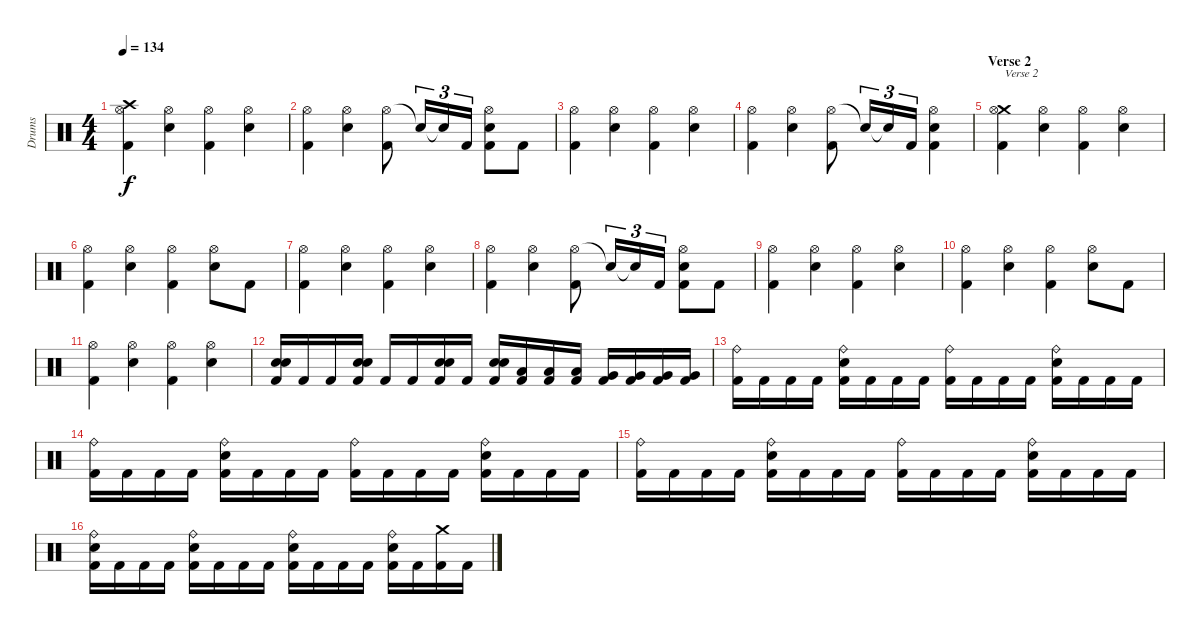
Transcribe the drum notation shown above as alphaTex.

\track ("Drums" "Drums") {instrument percussion}
\staff {score}
\articulation defaults
\ts (4 4)
\tempo 134
\clef neutral
\ks c
("Crash high (hit)" "Hi-Hat (open)" "Kick (hit) 2").4{dy f} ("Hi-Hat (open)" "Electric Snare (hit)").4 ("Hi-Hat (open)" "Kick (hit) 2").4 ("Hi-Hat (open)" "Electric Snare (hit)").4 |
("Hi-Hat (open)" "Kick (hit) 2").4 ("Hi-Hat (open)" "Electric Snare (hit)").4 ("Hi-Hat (open)" "Kick (hit) 2").8 "Snare (hit)"{t}.16{tu (3 2)} "Snare (hit)"{t}.16{tu (3 2)} "Kick (hit) 2".16{tu (3 2)} ("Hi-Hat (open)" "Electric Snare (hit)" "Kick (hit) 2").8 "Kick (hit) 2".8 |
("Hi-Hat (open)" "Kick (hit) 2").4 ("Hi-Hat (open)" "Electric Snare (hit)").4 ("Hi-Hat (open)" "Kick (hit) 2").4 ("Hi-Hat (open)" "Electric Snare (hit)").4 |
("Hi-Hat (open)" "Kick (hit) 2").4 ("Hi-Hat (open)" "Electric Snare (hit)").4 ("Hi-Hat (open)" "Kick (hit) 2").8 "Snare (hit)"{t}.16{tu (3 2)} "Snare (hit)"{t}.16{tu (3 2)} "Kick (hit) 2".16{tu (3 2)} ("Hi-Hat (open)" "Electric Snare (hit)" "Kick (hit) 2").4 |
\section ("" "Verse 2")
("Crash medium (hit)" "Hi-Hat (open)" "Kick (hit) 2").4{txt "Verse 2"} ("Hi-Hat (open)" "Electric Snare (hit)").4 ("Hi-Hat (open)" "Kick (hit) 2").4 ("Hi-Hat (open)" "Electric Snare (hit)").4 |
("Hi-Hat (open)" "Kick (hit) 2").4 ("Hi-Hat (open)" "Electric Snare (hit)").4 ("Hi-Hat (open)" "Kick (hit) 2").4 ("Hi-Hat (open)" "Electric Snare (hit)").8 "Kick (hit) 2".8 |
("Hi-Hat (open)" "Kick (hit) 2").4 ("Hi-Hat (open)" "Electric Snare (hit)").4 ("Hi-Hat (open)" "Kick (hit) 2").4 ("Hi-Hat (open)" "Electric Snare (hit)").4 |
("Hi-Hat (open)" "Kick (hit) 2").4 ("Hi-Hat (open)" "Electric Snare (hit)").4 ("Hi-Hat (open)" "Kick (hit) 2").8 "Snare (hit)"{t}.16{tu (3 2)} "Snare (hit)"{t}.16{tu (3 2)} "Kick (hit) 2".16{tu (3 2)} ("Hi-Hat (open)" "Electric Snare (hit)" "Kick (hit) 2").8 "Kick (hit) 2".8 |
("Hi-Hat (open)" "Kick (hit) 2").4 ("Hi-Hat (open)" "Electric Snare (hit)").4 ("Hi-Hat (open)" "Kick (hit) 2").4 ("Hi-Hat (open)" "Electric Snare (hit)").4 |
("Hi-Hat (open)" "Kick (hit) 2").4 ("Hi-Hat (open)" "Electric Snare (hit)").4 ("Hi-Hat (open)" "Kick (hit) 2").4 ("Hi-Hat (open)" "Electric Snare (hit)").8 "Kick (hit) 2".8 |
("Hi-Hat (open)" "Kick (hit) 2").4 ("Hi-Hat (open)" "Electric Snare (hit)").4 ("Hi-Hat (open)" "Kick (hit) 2").4 ("Hi-Hat (open)" "Electric Snare (hit)").4 |
("Electric Snare (hit)" "Electric Snare (hit)" "Kick (hit) 2").16 "Kick (hit) 2".16 "Kick (hit) 2".16 ("Electric Snare (hit)" "Electric Snare (hit)" "Kick (hit) 2").16 "Kick (hit) 2".16 "Kick (hit) 2".16 ("Electric Snare (hit)" "Electric Snare (hit)" "Kick (hit) 2").16 "Kick (hit) 2".16 ("Electric Snare (hit)" "Electric Snare (hit)" "Kick (hit) 2").16 ("Low Floor Tom (hit)" "Kick (hit) 2").16 ("Low Floor Tom (hit)" "Kick (hit) 2").16 ("Low Floor Tom (hit)" "Kick (hit) 2").16 ("Very Low Tom (hit)" "Kick (hit) 2").16 ("Very Low Tom (hit)" "Kick (hit) 2").16 ("Very Low Tom (hit)" "Kick (hit) 2").16 ("Very Low Tom (hit)" "Kick (hit) 2").16 |
("Ride (bell)" "Kick (hit) 2").16 "Kick (hit) 2".16 "Kick (hit) 2".16 "Kick (hit) 2".16 ("Ride (bell)" "Electric Snare (hit)" "Kick (hit) 2").16 "Kick (hit) 2".16 "Kick (hit) 2".16 "Kick (hit) 2".16 ("Ride (bell)" "Kick (hit) 2").16 "Kick (hit) 2".16 "Kick (hit) 2".16 "Kick (hit) 2".16 ("Ride (bell)" "Electric Snare (hit)" "Kick (hit) 2").16 "Kick (hit) 2".16 "Kick (hit) 2".16 "Kick (hit) 2".16 |
("Ride (bell)" "Kick (hit) 2").16 "Kick (hit) 2".16 "Kick (hit) 2".16 "Kick (hit) 2".16 ("Ride (bell)" "Electric Snare (hit)" "Kick (hit) 2").16 "Kick (hit) 2".16 "Kick (hit) 2".16 "Kick (hit) 2".16 ("Ride (bell)" "Kick (hit) 2").16 "Kick (hit) 2".16 "Kick (hit) 2".16 "Kick (hit) 2".16 ("Ride (bell)" "Electric Snare (hit)" "Kick (hit) 2").16 "Kick (hit) 2".16 "Kick (hit) 2".16 "Kick (hit) 2".16 |
("Ride (bell)" "Kick (hit) 2").16 "Kick (hit) 2".16 "Kick (hit) 2".16 "Kick (hit) 2".16 ("Ride (bell)" "Electric Snare (hit)" "Kick (hit) 2").16 "Kick (hit) 2".16 "Kick (hit) 2".16 "Kick (hit) 2".16 ("Ride (bell)" "Kick (hit) 2").16 "Kick (hit) 2".16 "Kick (hit) 2".16 "Kick (hit) 2".16 ("Ride (bell)" "Electric Snare (hit)" "Kick (hit) 2").16 "Kick (hit) 2".16 "Kick (hit) 2".16 "Kick (hit) 2".16 |
("Ride (bell)" "Electric Snare (hit)" "Kick (hit) 2").16 "Kick (hit) 2".16 "Kick (hit) 2".16 "Kick (hit) 2".16 ("Ride (bell)" "Electric Snare (hit)" "Kick (hit) 2").16 "Kick (hit) 2".16 "Kick (hit) 2".16 "Kick (hit) 2".16 ("Ride (bell)" "Electric Snare (hit)" "Kick (hit) 2").16 "Kick (hit) 2".16 "Kick (hit) 2".16 "Kick (hit) 2".16 ("Ride (bell)" "Electric Snare (hit)" "Kick (hit) 2").16 "Kick (hit) 2".16 ("Crash medium (hit)" "Kick (hit) 2").16 "Kick (hit) 2".16
